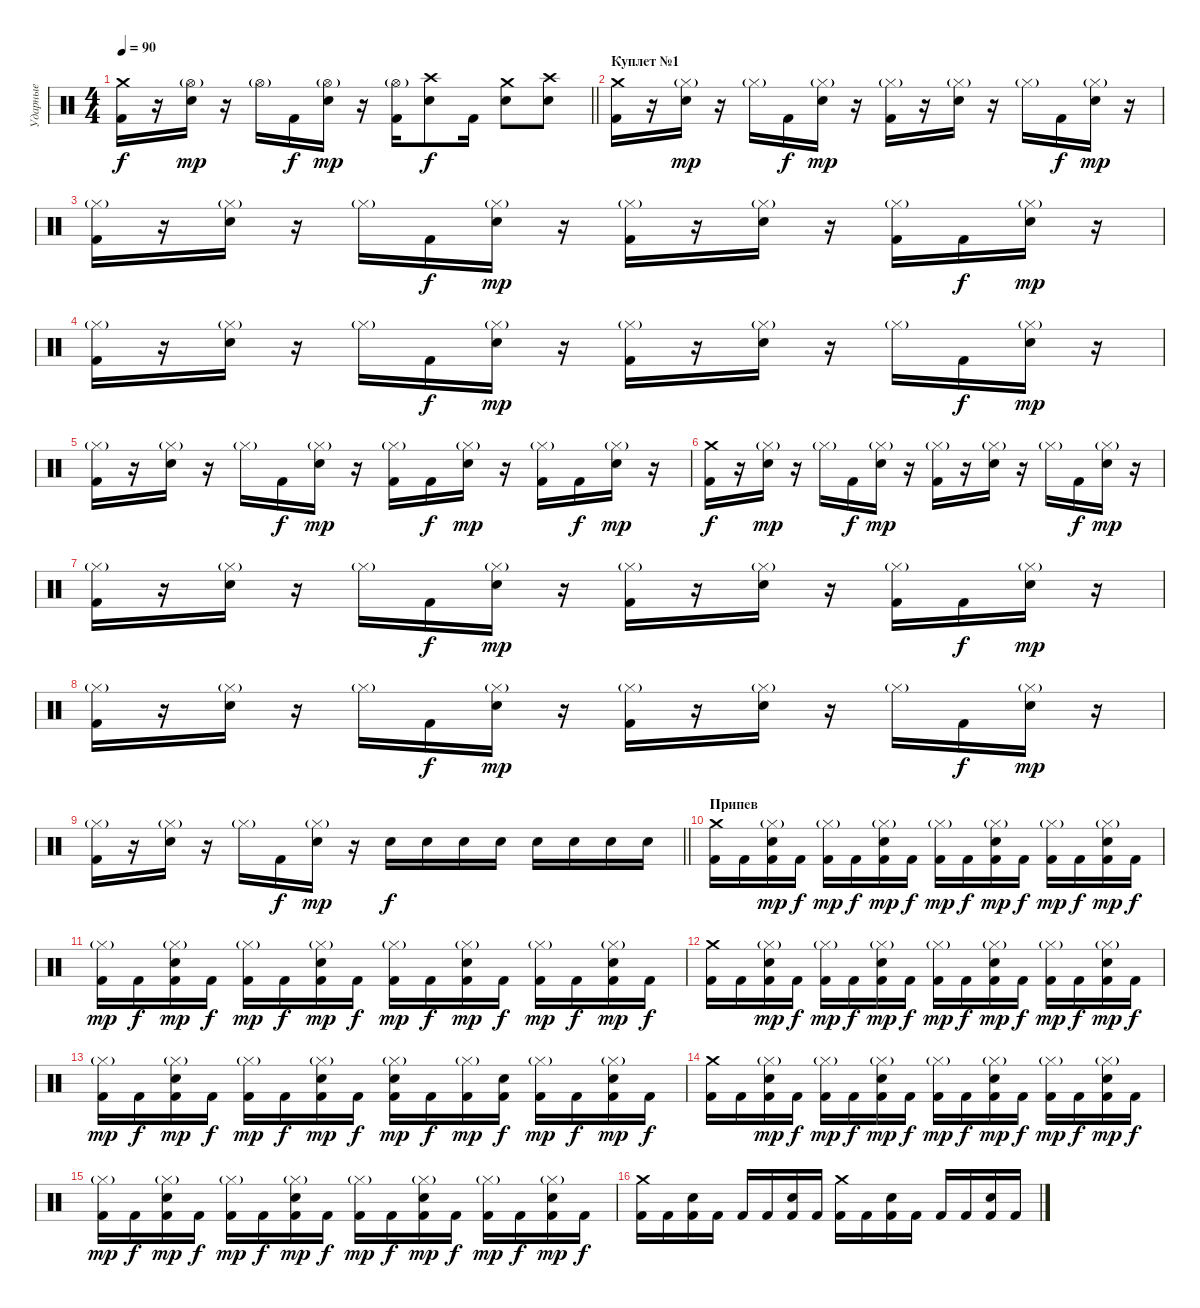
\track ("Ударные" "Ударные") {instrument percussion}
\staff {score}
\articulation defaults
\ts (4 4)
\tempo 90
\clef neutral
\barLineRight lightlight
\ks c
("Crash medium (hit)" "Kick (hit) 2").16{dy f} r.16 ("Snare (hit) 2" "Hi-Hat (open)"{g}).16{dy mp} r.16 "Hi-Hat (open)"{g}.16 "Kick (hit) 2".16{dy f} ("Snare (hit) 2" "Hi-Hat (open)"{g}).16{dy mp} r.16 ("Hi-Hat (open)"{g} "Kick (hit) 2").16 ("Snare (hit) 2" "Crash high (hit)").8{dy f} "Kick (hit) 2".16 ("Snare (hit) 2" "Crash medium (hit)").8 ("Snare (hit) 2" "Crash high (hit)").8 |
\section ("" "Куплет №1")
("Crash medium (hit)" "Kick (hit) 2").16 r.16 ("Snare (hit) 2" "Hi-Hat (closed)"{g}).16{dy mp} r.16 "Hi-Hat (closed)"{g}.16 "Kick (hit) 2".16{dy f} ("Snare (hit) 2" "Hi-Hat (closed)"{g}).16{dy mp} r.16 ("Hi-Hat (closed)"{g} "Kick (hit) 2").16 r.16 ("Snare (hit) 2" "Hi-Hat (closed)"{g}).16 r.16 "Hi-Hat (closed)"{g}.16 "Kick (hit) 2".16{dy f} ("Snare (hit) 2" "Hi-Hat (closed)"{g}).16{dy mp} r.16 |
("Hi-Hat (closed)"{g} "Kick (hit) 2").16 r.16 ("Snare (hit) 2" "Hi-Hat (closed)"{g}).16 r.16 "Hi-Hat (closed)"{g}.16 "Kick (hit) 2".16{dy f} ("Snare (hit) 2" "Hi-Hat (closed)"{g}).16{dy mp} r.16 ("Hi-Hat (closed)"{g} "Kick (hit) 2").16 r.16 ("Snare (hit) 2" "Hi-Hat (closed)"{g}).16 r.16 ("Hi-Hat (closed)"{g} "Kick (hit) 2").16 "Kick (hit) 2".16{dy f} ("Snare (hit) 2" "Hi-Hat (closed)"{g}).16{dy mp} r.16 |
("Hi-Hat (closed)"{g} "Kick (hit) 2").16 r.16 ("Snare (hit) 2" "Hi-Hat (closed)"{g}).16 r.16 "Hi-Hat (closed)"{g}.16 "Kick (hit) 2".16{dy f} ("Snare (hit) 2" "Hi-Hat (closed)"{g}).16{dy mp} r.16 ("Hi-Hat (closed)"{g} "Kick (hit) 2").16 r.16 ("Snare (hit) 2" "Hi-Hat (closed)"{g}).16 r.16 "Hi-Hat (closed)"{g}.16 "Kick (hit) 2".16{dy f} ("Snare (hit) 2" "Hi-Hat (closed)"{g}).16{dy mp} r.16 |
("Hi-Hat (closed)"{g} "Kick (hit) 2").16 r.16 ("Snare (hit) 2" "Hi-Hat (closed)"{g}).16 r.16 "Hi-Hat (closed)"{g}.16 "Kick (hit) 2".16{dy f} ("Snare (hit) 2" "Hi-Hat (closed)"{g}).16{dy mp} r.16 ("Hi-Hat (closed)"{g} "Kick (hit) 2").16 "Kick (hit) 2".16{dy f} ("Snare (hit) 2" "Hi-Hat (closed)"{g}).16{dy mp} r.16 ("Hi-Hat (closed)"{g} "Kick (hit) 2").16 "Kick (hit) 2".16{dy f} ("Snare (hit) 2" "Hi-Hat (closed)"{g}).16{dy mp} r.16 |
("Crash medium (hit)" "Kick (hit) 2").16{dy f} r.16 ("Snare (hit) 2" "Hi-Hat (closed)"{g}).16{dy mp} r.16 "Hi-Hat (closed)"{g}.16 "Kick (hit) 2".16{dy f} ("Snare (hit) 2" "Hi-Hat (closed)"{g}).16{dy mp} r.16 ("Hi-Hat (closed)"{g} "Kick (hit) 2").16 r.16 ("Snare (hit) 2" "Hi-Hat (closed)"{g}).16 r.16 "Hi-Hat (closed)"{g}.16 "Kick (hit) 2".16{dy f} ("Snare (hit) 2" "Hi-Hat (closed)"{g}).16{dy mp} r.16 |
("Hi-Hat (closed)"{g} "Kick (hit) 2").16 r.16 ("Snare (hit) 2" "Hi-Hat (closed)"{g}).16 r.16 "Hi-Hat (closed)"{g}.16 "Kick (hit) 2".16{dy f} ("Snare (hit) 2" "Hi-Hat (closed)"{g}).16{dy mp} r.16 ("Hi-Hat (closed)"{g} "Kick (hit) 2").16 r.16 ("Snare (hit) 2" "Hi-Hat (closed)"{g}).16 r.16 ("Hi-Hat (closed)"{g} "Kick (hit) 2").16 "Kick (hit) 2".16{dy f} ("Snare (hit) 2" "Hi-Hat (closed)"{g}).16{dy mp} r.16 |
("Hi-Hat (closed)"{g} "Kick (hit) 2").16 r.16 ("Snare (hit) 2" "Hi-Hat (closed)"{g}).16 r.16 "Hi-Hat (closed)"{g}.16 "Kick (hit) 2".16{dy f} ("Snare (hit) 2" "Hi-Hat (closed)"{g}).16{dy mp} r.16 ("Hi-Hat (closed)"{g} "Kick (hit) 2").16 r.16 ("Snare (hit) 2" "Hi-Hat (closed)"{g}).16 r.16 "Hi-Hat (closed)"{g}.16 "Kick (hit) 2".16{dy f} ("Snare (hit) 2" "Hi-Hat (closed)"{g}).16{dy mp} r.16 |
\barLineRight lightlight
("Hi-Hat (closed)"{g} "Kick (hit) 2").16 r.16 ("Snare (hit) 2" "Hi-Hat (closed)"{g}).16 r.16 "Hi-Hat (closed)"{g}.16 "Kick (hit) 2".16{dy f} ("Snare (hit) 2" "Hi-Hat (closed)"{g}).16{dy mp} r.16 "Snare (hit) 2".16{dy f} "Snare (hit) 2".16 "Snare (hit) 2".16 "Snare (hit) 2".16 "Snare (hit) 2".16 "Snare (hit) 2".16 "Snare (hit) 2".16 "Snare (hit) 2".16 |
\section ("" "Припев ")
("Crash medium (hit)" "Kick (hit) 2").16 "Kick (hit) 2".16 ("Snare (hit) 2" "Hi-Hat (closed)"{g} "Kick (hit) 2").16{dy mp} "Kick (hit) 2".16{dy f} ("Hi-Hat (closed)"{g} "Kick (hit) 2").16{dy mp} "Kick (hit) 2".16{dy f} ("Snare (hit) 2" "Hi-Hat (closed)"{g} "Kick (hit) 2").16{dy mp} "Kick (hit) 2".16{dy f} ("Hi-Hat (closed)"{g} "Kick (hit) 2").16{dy mp} "Kick (hit) 2".16{dy f} ("Snare (hit) 2" "Hi-Hat (closed)"{g} "Kick (hit) 2").16{dy mp} "Kick (hit) 2".16{dy f} ("Hi-Hat (closed)"{g} "Kick (hit) 2").16{dy mp} "Kick (hit) 2".16{dy f} ("Snare (hit) 2" "Hi-Hat (closed)"{g} "Kick (hit) 2").16{dy mp} "Kick (hit) 2".16{dy f} |
("Hi-Hat (closed)"{g} "Kick (hit) 2").16{dy mp} "Kick (hit) 2".16{dy f} ("Snare (hit) 2" "Hi-Hat (closed)"{g} "Kick (hit) 2").16{dy mp} "Kick (hit) 2".16{dy f} ("Hi-Hat (closed)"{g} "Kick (hit) 2").16{dy mp} "Kick (hit) 2".16{dy f} ("Snare (hit) 2" "Hi-Hat (closed)"{g} "Kick (hit) 2").16{dy mp} "Kick (hit) 2".16{dy f} ("Hi-Hat (closed)"{g} "Kick (hit) 2").16{dy mp} "Kick (hit) 2".16{dy f} ("Snare (hit) 2" "Hi-Hat (closed)"{g} "Kick (hit) 2").16{dy mp} "Kick (hit) 2".16{dy f} ("Hi-Hat (closed)"{g} "Kick (hit) 2").16{dy mp} "Kick (hit) 2".16{dy f} ("Snare (hit) 2" "Hi-Hat (closed)"{g} "Kick (hit) 2").16{dy mp} "Kick (hit) 2".16{dy f} |
("Crash medium (hit)" "Kick (hit) 2").16 "Kick (hit) 2".16 ("Snare (hit) 2" "Hi-Hat (closed)"{g} "Kick (hit) 2").16{dy mp} "Kick (hit) 2".16{dy f} ("Hi-Hat (closed)"{g} "Kick (hit) 2").16{dy mp} "Kick (hit) 2".16{dy f} ("Snare (hit) 2" "Hi-Hat (closed)"{g} "Kick (hit) 2").16{dy mp} "Kick (hit) 2".16{dy f} ("Hi-Hat (closed)"{g} "Kick (hit) 2").16{dy mp} "Kick (hit) 2".16{dy f} ("Snare (hit) 2" "Hi-Hat (closed)"{g} "Kick (hit) 2").16{dy mp} "Kick (hit) 2".16{dy f} ("Hi-Hat (closed)"{g} "Kick (hit) 2").16{dy mp} "Kick (hit) 2".16{dy f} ("Snare (hit) 2" "Hi-Hat (closed)"{g} "Kick (hit) 2").16{dy mp} "Kick (hit) 2".16{dy f} |
("Hi-Hat (closed)"{g} "Kick (hit) 2").16{dy mp} "Kick (hit) 2".16{dy f} ("Snare (hit) 2" "Hi-Hat (closed)"{g} "Kick (hit) 2").16{dy mp} "Kick (hit) 2".16{dy f} ("Hi-Hat (closed)"{g} "Kick (hit) 2").16{dy mp} "Kick (hit) 2".16{dy f} ("Snare (hit) 2" "Hi-Hat (closed)"{g} "Kick (hit) 2").16{dy mp} "Kick (hit) 2".16{dy f} ("Snare (hit) 2" "Hi-Hat (closed)"{g} "Kick (hit) 2").16{dy mp} "Kick (hit) 2".16{dy f} ("Hi-Hat (closed)"{g} "Kick (hit) 2").16{dy mp} ("Snare (hit) 2" "Kick (hit) 2").16{dy f} ("Hi-Hat (closed)"{g} "Kick (hit) 2").16{dy mp} "Kick (hit) 2".16{dy f} ("Snare (hit) 2" "Hi-Hat (closed)"{g} "Kick (hit) 2").16{dy mp} "Kick (hit) 2".16{dy f} |
("Crash medium (hit)" "Kick (hit) 2").16 "Kick (hit) 2".16 ("Snare (hit) 2" "Hi-Hat (closed)"{g} "Kick (hit) 2").16{dy mp} "Kick (hit) 2".16{dy f} ("Hi-Hat (closed)"{g} "Kick (hit) 2").16{dy mp} "Kick (hit) 2".16{dy f} ("Snare (hit) 2" "Hi-Hat (closed)"{g} "Kick (hit) 2").16{dy mp} "Kick (hit) 2".16{dy f} ("Hi-Hat (closed)"{g} "Kick (hit) 2").16{dy mp} "Kick (hit) 2".16{dy f} ("Snare (hit) 2" "Hi-Hat (closed)"{g} "Kick (hit) 2").16{dy mp} "Kick (hit) 2".16{dy f} ("Hi-Hat (closed)"{g} "Kick (hit) 2").16{dy mp} "Kick (hit) 2".16{dy f} ("Snare (hit) 2" "Hi-Hat (closed)"{g} "Kick (hit) 2").16{dy mp} "Kick (hit) 2".16{dy f} |
("Hi-Hat (closed)"{g} "Kick (hit) 2").16{dy mp} "Kick (hit) 2".16{dy f} ("Snare (hit) 2" "Hi-Hat (closed)"{g} "Kick (hit) 2").16{dy mp} "Kick (hit) 2".16{dy f} ("Hi-Hat (closed)"{g} "Kick (hit) 2").16{dy mp} "Kick (hit) 2".16{dy f} ("Snare (hit) 2" "Hi-Hat (closed)"{g} "Kick (hit) 2").16{dy mp} "Kick (hit) 2".16{dy f} ("Hi-Hat (closed)"{g} "Kick (hit) 2").16{dy mp} "Kick (hit) 2".16{dy f} ("Snare (hit) 2" "Hi-Hat (closed)"{g} "Kick (hit) 2").16{dy mp} "Kick (hit) 2".16{dy f} ("Hi-Hat (closed)"{g} "Kick (hit) 2").16{dy mp} "Kick (hit) 2".16{dy f} ("Snare (hit) 2" "Hi-Hat (closed)"{g} "Kick (hit) 2").16{dy mp} "Kick (hit) 2".16{dy f} |
("Crash medium (hit)" "Kick (hit) 2").16 "Kick (hit) 2".16 ("Snare (hit) 2" "Kick (hit) 2").16 "Kick (hit) 2".16 "Kick (hit) 2".16 "Kick (hit) 2".16 ("Snare (hit) 2" "Kick (hit) 2").16 "Kick (hit) 2".16 ("Crash medium (hit)" "Kick (hit) 2").16 "Kick (hit) 2".16 ("Snare (hit) 2" "Kick (hit) 2").16 "Kick (hit) 2".16 "Kick (hit) 2".16 "Kick (hit) 2".16 ("Snare (hit) 2" "Kick (hit) 2").16 "Kick (hit) 2".16
